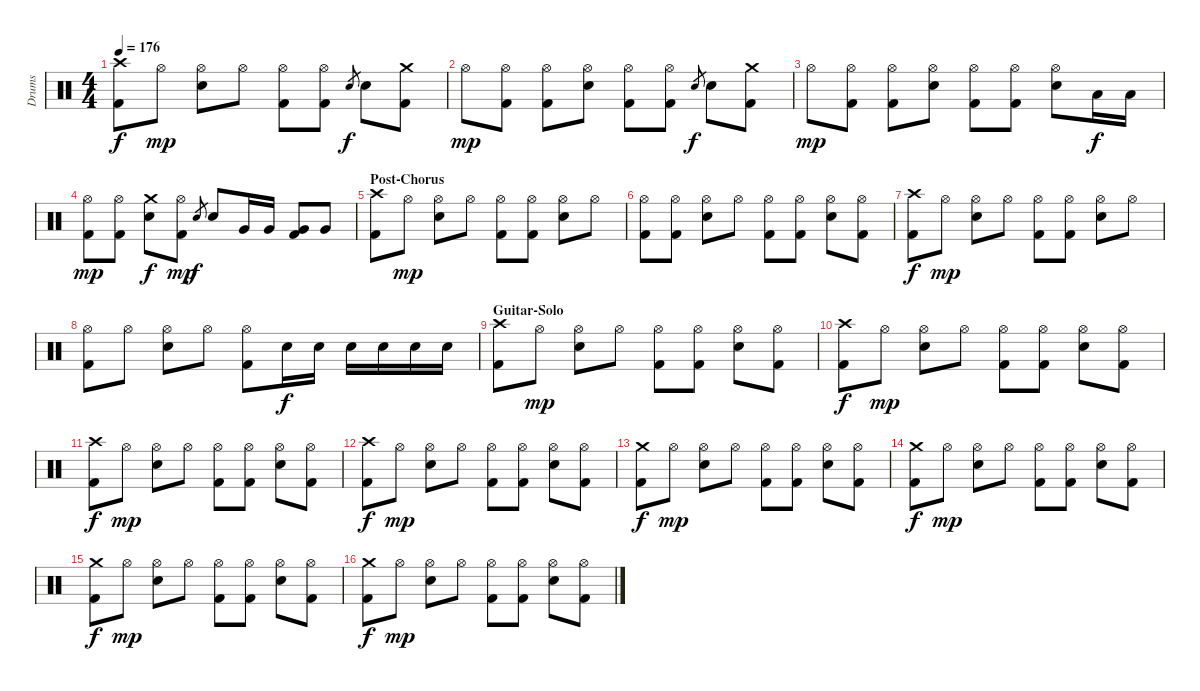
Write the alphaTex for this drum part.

\track ("Drums" "Drums") {instrument percussion}
\staff {score}
\articulation defaults
\ts (4 4)
\tempo 176
\clef neutral
\ks c
("Crash high (hit)" "Kick (hit) 2").8{dy f} "Hi-Hat (open)".8{dy mp} ("Hi-Hat (open)" "Electric Snare (hit)").8 "Hi-Hat (open)".8 ("Hi-Hat (open)" "Kick (hit) 2").8 ("Hi-Hat (open)" "Kick (hit) 2").8 "Electric Snare (hit)".8{gr dy f} "Electric Snare (hit)".8 ("Crash medium (hit)" "Kick (hit) 2").8 |
"Hi-Hat (open)".8{dy mp} ("Hi-Hat (open)" "Kick (hit) 2").8 ("Hi-Hat (open)" "Kick (hit) 2").8 ("Hi-Hat (open)" "Electric Snare (hit)").8 ("Hi-Hat (open)" "Kick (hit) 2").8 ("Hi-Hat (open)" "Kick (hit) 2").8 "Electric Snare (hit)".8{gr dy f} "Electric Snare (hit)".8 ("Crash medium (hit)" "Kick (hit) 2").8 |
"Hi-Hat (open)".8{dy mp} ("Hi-Hat (open)" "Kick (hit) 2").8 ("Hi-Hat (open)" "Kick (hit) 2").8 ("Hi-Hat (open)" "Electric Snare (hit)").8 ("Hi-Hat (open)" "Kick (hit) 2").8 ("Hi-Hat (open)" "Kick (hit) 2").8 ("Hi-Hat (open)" "Electric Snare (hit)").8 "Low Tom (hit)".16{dy f} "Low Tom (hit)".16 |
("Hi-Hat (open)" "Kick (hit) 2").8{dy mp} ("Hi-Hat (open)" "Kick (hit) 2").8 ("Crash medium (hit)" "Electric Snare (hit)").8{dy f} ("Hi-Hat (open)" "Kick (hit) 2").8{dy mp} "Electric Snare (hit)".8{gr dy f} "Electric Snare (hit)".8 "Very Low Tom (hit)".16 "Very Low Tom (hit)".16 ("Very Low Tom (hit)" "Kick (hit) 2").8 "Very Low Tom (hit)".8 |
\section ("" "Post-Chorus")
("Crash high (hit)" "Kick (hit) 2").8 "Hi-Hat (open)".8{dy mp} ("Hi-Hat (open)" "Electric Snare (hit)").8 "Hi-Hat (open)".8 ("Hi-Hat (open)" "Kick (hit) 2").8 ("Hi-Hat (open)" "Kick (hit) 2").8 ("Hi-Hat (open)" "Electric Snare (hit)").8 "Hi-Hat (open)".8 |
("Hi-Hat (open)" "Kick (hit) 2").8 ("Hi-Hat (open)" "Kick (hit) 2").8 ("Hi-Hat (open)" "Electric Snare (hit)").8 "Hi-Hat (open)".8 ("Hi-Hat (open)" "Kick (hit) 2").8 ("Hi-Hat (open)" "Kick (hit) 2").8 ("Hi-Hat (open)" "Electric Snare (hit)").8 ("Hi-Hat (open)" "Kick (hit) 2").8 |
("Crash high (hit)" "Kick (hit) 2").8{dy f} "Hi-Hat (open)".8{dy mp} ("Hi-Hat (open)" "Electric Snare (hit)").8 "Hi-Hat (open)".8 ("Hi-Hat (open)" "Kick (hit) 2").8 ("Hi-Hat (open)" "Kick (hit) 2").8 ("Hi-Hat (open)" "Electric Snare (hit)").8 "Hi-Hat (open)".8 |
("Hi-Hat (open)" "Kick (hit) 2").8 "Hi-Hat (open)".8 ("Hi-Hat (open)" "Electric Snare (hit)").8 "Hi-Hat (open)".8 ("Hi-Hat (open)" "Kick (hit) 2").8 "Electric Snare (hit)".16{dy f} "Electric Snare (hit)".16 "Electric Snare (hit)".16 "Electric Snare (hit)".16 "Electric Snare (hit)".16 "Electric Snare (hit)".16 |
\section ("" "Guitar-Solo")
("Crash high (hit)" "Kick (hit) 2").8 "Hi-Hat (open)".8{dy mp} ("Hi-Hat (open)" "Electric Snare (hit)").8 "Hi-Hat (open)".8 ("Hi-Hat (open)" "Kick (hit) 2").8 ("Hi-Hat (open)" "Kick (hit) 2").8 ("Hi-Hat (open)" "Electric Snare (hit)").8 ("Hi-Hat (open)" "Kick (hit) 2").8 |
("Crash high (hit)" "Kick (hit) 2").8{dy f} "Hi-Hat (open)".8{dy mp} ("Hi-Hat (open)" "Electric Snare (hit)").8 "Hi-Hat (open)".8 ("Hi-Hat (open)" "Kick (hit) 2").8 ("Hi-Hat (open)" "Kick (hit) 2").8 ("Hi-Hat (open)" "Electric Snare (hit)").8 ("Hi-Hat (open)" "Kick (hit) 2").8 |
("Crash high (hit)" "Kick (hit) 2").8{dy f} "Hi-Hat (open)".8{dy mp} ("Hi-Hat (open)" "Electric Snare (hit)").8 "Hi-Hat (open)".8 ("Hi-Hat (open)" "Kick (hit) 2").8 ("Hi-Hat (open)" "Kick (hit) 2").8 ("Hi-Hat (open)" "Electric Snare (hit)").8 ("Hi-Hat (open)" "Kick (hit) 2").8 |
("Crash high (hit)" "Kick (hit) 2").8{dy f} "Hi-Hat (open)".8{dy mp} ("Hi-Hat (open)" "Electric Snare (hit)").8 "Hi-Hat (open)".8 ("Hi-Hat (open)" "Kick (hit) 2").8 ("Hi-Hat (open)" "Kick (hit) 2").8 ("Hi-Hat (open)" "Electric Snare (hit)").8 ("Hi-Hat (open)" "Kick (hit) 2").8 |
("Crash medium (hit)" "Kick (hit) 2").8{dy f} "Hi-Hat (open)".8{dy mp} ("Hi-Hat (open)" "Electric Snare (hit)").8 "Hi-Hat (open)".8 ("Hi-Hat (open)" "Kick (hit) 2").8 ("Hi-Hat (open)" "Kick (hit) 2").8 ("Hi-Hat (open)" "Electric Snare (hit)").8 ("Hi-Hat (open)" "Kick (hit) 2").8 |
("Crash medium (hit)" "Kick (hit) 2").8{dy f} "Hi-Hat (open)".8{dy mp} ("Hi-Hat (open)" "Electric Snare (hit)").8 "Hi-Hat (open)".8 ("Hi-Hat (open)" "Kick (hit) 2").8 ("Hi-Hat (open)" "Kick (hit) 2").8 ("Hi-Hat (open)" "Electric Snare (hit)").8 ("Hi-Hat (open)" "Kick (hit) 2").8 |
("Crash medium (hit)" "Kick (hit) 2").8{dy f} "Hi-Hat (open)".8{dy mp} ("Hi-Hat (open)" "Electric Snare (hit)").8 "Hi-Hat (open)".8 ("Hi-Hat (open)" "Kick (hit) 2").8 ("Hi-Hat (open)" "Kick (hit) 2").8 ("Hi-Hat (open)" "Electric Snare (hit)").8 ("Hi-Hat (open)" "Kick (hit) 2").8 |
("Crash medium (hit)" "Kick (hit) 2").8{dy f} "Hi-Hat (open)".8{dy mp} ("Hi-Hat (open)" "Electric Snare (hit)").8 "Hi-Hat (open)".8 ("Hi-Hat (open)" "Kick (hit) 2").8 ("Hi-Hat (open)" "Kick (hit) 2").8 ("Hi-Hat (open)" "Electric Snare (hit)").8 ("Hi-Hat (open)" "Kick (hit) 2").8
